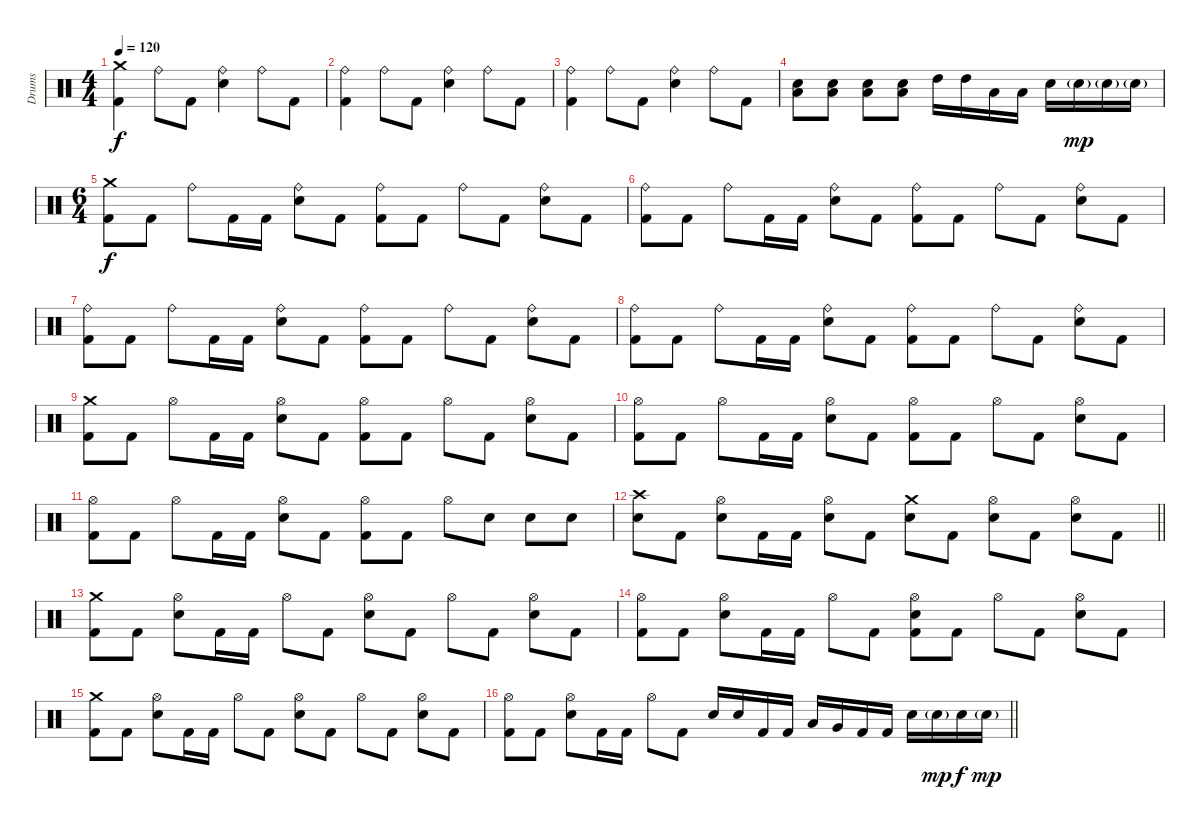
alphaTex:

\track ("Drums" "Drums") {instrument percussion}
\staff {score}
\articulation defaults
\ts (4 4)
\tempo 120
\clef neutral
\ks c
("Crash medium (hit)" "Kick (hit) 2").4{dy f} "Ride (bell)".8 "Kick (hit) 2".8 ("Ride (bell)" "Snare (hit) 2").4 "Ride (bell)".8 "Kick (hit) 2".8 |
("Ride (bell)" "Kick (hit) 2").4 "Ride (bell)".8 "Kick (hit) 2".8 ("Ride (bell)" "Snare (hit) 2").4 "Ride (bell)".8 "Kick (hit) 2".8 |
("Ride (bell)" "Kick (hit) 2").4 "Ride (bell)".8 "Kick (hit) 2".8 ("Ride (bell)" "Snare (hit) 2").4 "Ride (bell)".8 "Kick (hit) 2".8 |
("Snare (hit) 2" "Low Floor Tom (hit)").8 ("Snare (hit) 2" "Low Floor Tom (hit)").8 ("Snare (hit) 2" "Low Floor Tom (hit)").8 ("Snare (hit) 2" "Low Floor Tom (hit)").8 "High Tom (hit)".16 "High Tom (hit)".16 "Low Tom (hit)".16 "Low Tom (hit)".16 "Snare (hit) 2".16 "Snare (hit) 2"{g}.16{dy mp} "Snare (hit) 2"{g}.16 "Snare (hit) 2"{g}.16 |
\ts (6 4)
("Crash medium (hit)" "Kick (hit) 2").8{dy f} "Kick (hit) 2".8 "Ride (bell)".8 "Kick (hit) 2".16 "Kick (hit) 2".16 ("Ride (bell)" "Snare (hit) 2").8 "Kick (hit) 2".8 ("Ride (bell)" "Kick (hit) 2").8 "Kick (hit) 2".8 "Ride (bell)".8 "Kick (hit) 2".8 ("Ride (bell)" "Snare (hit) 2").8 "Kick (hit) 2".8 |
("Ride (bell)" "Kick (hit) 2").8 "Kick (hit) 2".8 "Ride (bell)".8 "Kick (hit) 2".16 "Kick (hit) 2".16 ("Ride (bell)" "Snare (hit) 2").8 "Kick (hit) 2".8 ("Ride (bell)" "Kick (hit) 2").8 "Kick (hit) 2".8 "Ride (bell)".8 "Kick (hit) 2".8 ("Ride (bell)" "Snare (hit) 2").8 "Kick (hit) 2".8 |
("Ride (bell)" "Kick (hit) 2").8 "Kick (hit) 2".8 "Ride (bell)".8 "Kick (hit) 2".16 "Kick (hit) 2".16 ("Ride (bell)" "Snare (hit) 2").8 "Kick (hit) 2".8 ("Ride (bell)" "Kick (hit) 2").8 "Kick (hit) 2".8 "Ride (bell)".8 "Kick (hit) 2".8 ("Ride (bell)" "Snare (hit) 2").8 "Kick (hit) 2".8 |
("Ride (bell)" "Kick (hit) 2").8 "Kick (hit) 2".8 "Ride (bell)".8 "Kick (hit) 2".16 "Kick (hit) 2".16 ("Ride (bell)" "Snare (hit) 2").8 "Kick (hit) 2".8 ("Ride (bell)" "Kick (hit) 2").8 "Kick (hit) 2".8 "Ride (bell)".8 "Kick (hit) 2".8 ("Ride (bell)" "Snare (hit) 2").8 "Kick (hit) 2".8 |
("Crash medium (hit)" "Kick (hit) 2").8 "Kick (hit) 2".8 "Hi-Hat (open)".8 "Kick (hit) 2".16 "Kick (hit) 2".16 ("Hi-Hat (open)" "Snare (hit) 2").8 "Kick (hit) 2".8 ("Hi-Hat (open)" "Kick (hit) 2").8 "Kick (hit) 2".8 "Hi-Hat (open)".8 "Kick (hit) 2".8 ("Hi-Hat (open)" "Snare (hit) 2").8 "Kick (hit) 2".8 |
("Hi-Hat (open)" "Kick (hit) 2").8 "Kick (hit) 2".8 "Hi-Hat (open)".8 "Kick (hit) 2".16 "Kick (hit) 2".16 ("Hi-Hat (open)" "Snare (hit) 2").8 "Kick (hit) 2".8 ("Hi-Hat (open)" "Kick (hit) 2").8 "Kick (hit) 2".8 "Hi-Hat (open)".8 "Kick (hit) 2".8 ("Hi-Hat (open)" "Snare (hit) 2").8 "Kick (hit) 2".8 |
("Hi-Hat (open)" "Kick (hit) 2").8 "Kick (hit) 2".8 "Hi-Hat (open)".8 "Kick (hit) 2".16 "Kick (hit) 2".16 ("Hi-Hat (open)" "Snare (hit) 2").8 "Kick (hit) 2".8 ("Hi-Hat (open)" "Kick (hit) 2").8 "Kick (hit) 2".8 "Hi-Hat (open)".8 "Snare (hit) 2".8 "Snare (hit) 2".8 "Snare (hit) 2".8 |
\barLineRight lightlight
("Crash high (hit)" "Snare (hit) 2").8 "Kick (hit) 2".8 ("Hi-Hat (open)" "Snare (hit) 2").8 "Kick (hit) 2".16 "Kick (hit) 2".16 ("Hi-Hat (open)" "Snare (hit) 2").8 "Kick (hit) 2".8 ("Crash medium (hit)" "Snare (hit) 2").8 "Kick (hit) 2".8 ("Hi-Hat (open)" "Snare (hit) 2").8 "Kick (hit) 2".8 ("Hi-Hat (open)" "Snare (hit) 2").8 "Kick (hit) 2".8 |
("Crash medium (hit)" "Kick (hit) 2").8 "Kick (hit) 2".8 ("Hi-Hat (open)" "Snare (hit) 2").8 "Kick (hit) 2".16 "Kick (hit) 2".16 "Hi-Hat (open)".8 "Kick (hit) 2".8 ("Hi-Hat (open)" "Snare (hit) 2").8 "Kick (hit) 2".8 "Hi-Hat (open)".8 "Kick (hit) 2".8 ("Hi-Hat (open)" "Snare (hit) 2").8 "Kick (hit) 2".8 |
("Hi-Hat (open)" "Kick (hit) 2").8 "Kick (hit) 2".8 ("Hi-Hat (open)" "Snare (hit) 2").8 "Kick (hit) 2".16 "Kick (hit) 2".16 "Hi-Hat (open)".8 "Kick (hit) 2".8 ("Hi-Hat (open)" "Snare (hit) 2" "Kick (hit) 2").8 "Kick (hit) 2".8 "Hi-Hat (open)".8 "Kick (hit) 2".8 ("Hi-Hat (open)" "Snare (hit) 2").8 "Kick (hit) 2".8 |
("Crash medium (hit)" "Kick (hit) 2").8 "Kick (hit) 2".8 ("Hi-Hat (open)" "Snare (hit) 2").8 "Kick (hit) 2".16 "Kick (hit) 2".16 "Hi-Hat (open)".8 "Kick (hit) 2".8 ("Hi-Hat (open)" "Snare (hit) 2").8 "Kick (hit) 2".8 "Hi-Hat (open)".8 "Kick (hit) 2".8 ("Hi-Hat (open)" "Snare (hit) 2").8 "Kick (hit) 2".8 |
\barLineRight lightlight
("Hi-Hat (open)" "Kick (hit) 2").8 "Kick (hit) 2".8 ("Hi-Hat (open)" "Snare (hit) 2").8 "Kick (hit) 2".16 "Kick (hit) 2".16 "Hi-Hat (open)".8 "Kick (hit) 2".8 "Snare (hit) 2".16 "Snare (hit) 2".16 "Kick (hit) 2".16 "Kick (hit) 2".16 "Low Tom (hit)".16 "Very Low Tom (hit)".16 "Kick (hit) 2".16 "Kick (hit) 2".16 "Snare (hit) 2".16 "Snare (hit) 2"{g}.16{dy mp} "Snare (hit) 2".16{dy f} "Snare (hit) 2"{g}.16{dy mp}
